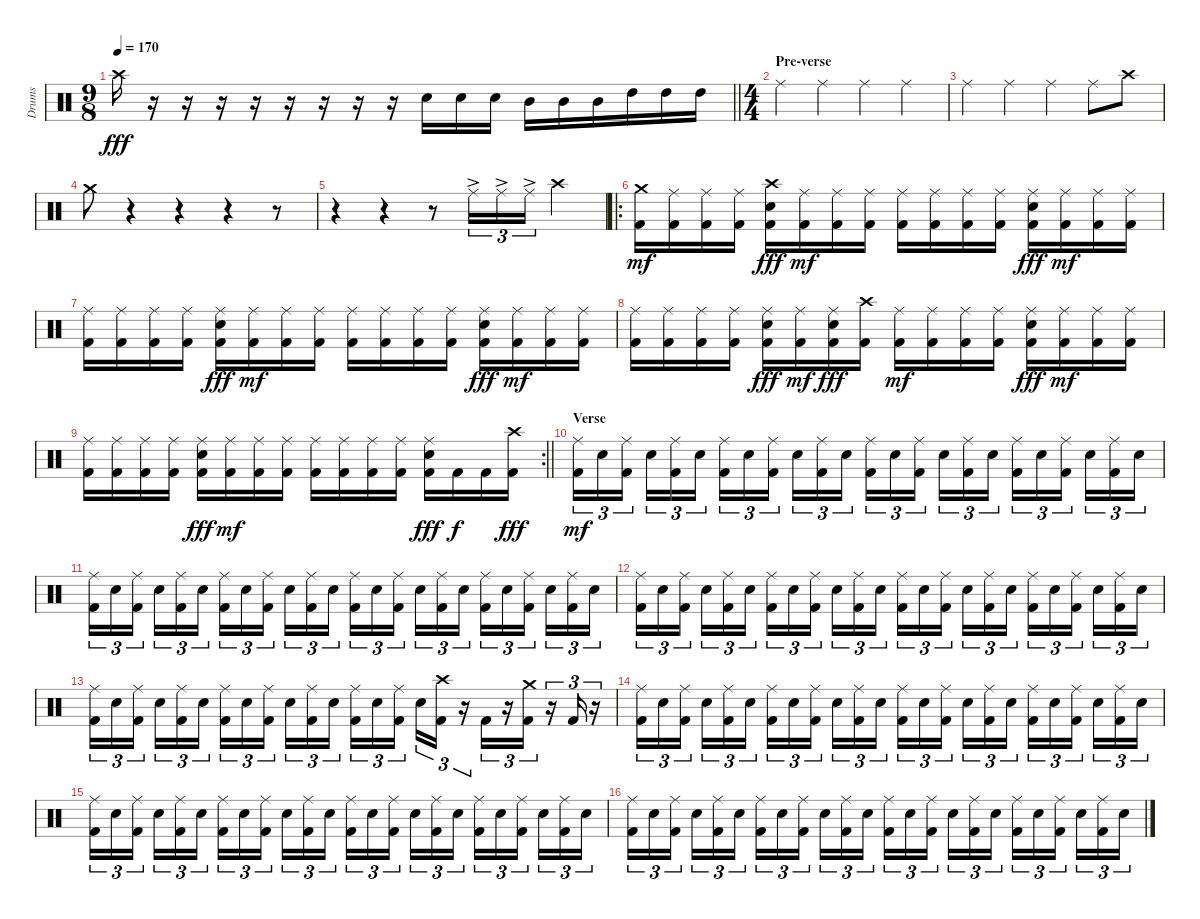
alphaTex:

\track ("Drums" "Drums") {instrument percussion}
\staff {score}
\articulation defaults
\ts (9 8)
\tempo 170
\clef neutral
\barLineRight lightlight
\ks c "Crash high (hit)".16{dy fff}
r.16 r.16 r.16 r.16 r.16 r.16 r.16 r.16 "Snare (hit) 2".16 "Snare (hit) 2".16 "Snare (hit) 2".16 "Mid Tom (hit)".16 "Mid Tom (hit)".16 "Mid Tom (hit)".16 "High Tom (hit)".16 "High Tom (hit)".16 "High Tom (hit)".16 |
\ts (4 4)
\section ("" "Pre-verse")
"Ride (middle)".4 "Ride (middle)".4 "Ride (middle)".4 "Ride (middle)".4 |
"Ride (middle)".4 "Ride (middle)".4 "Ride (middle)".4 "Ride (middle)".8 "Crash high (hit)".8 |
"Crash medium (hit)".8 r.4 r.4 r.4 r.8 |
r.4 r.4 r.8 "Ride (middle)"{ac}.16{tu (3 2)} "Ride (middle)"{ac}.16{tu (3 2)} "Ride (middle)"{ac}.16{tu (3 2)} "Crash high (hit)".4 |
\ro
("Crash medium (hit)" "Kick (hit) 2").16{dy mf} ("Ride (middle)" "Kick (hit) 2").16 ("Ride (middle)" "Kick (hit) 2").16 ("Ride (middle)" "Kick (hit) 2").16 ("Crash high (hit)" "Snare (hit) 2" "Kick (hit) 2").16{dy fff} ("Ride (middle)" "Kick (hit) 2").16{dy mf} ("Ride (middle)" "Kick (hit) 2").16 ("Ride (middle)" "Kick (hit) 2").16 ("Ride (middle)" "Kick (hit) 2").16 ("Ride (middle)" "Kick (hit) 2").16 ("Ride (middle)" "Kick (hit) 2").16 ("Ride (middle)" "Kick (hit) 2").16 ("Ride (middle)" "Snare (hit) 2" "Kick (hit) 2").16{dy fff} ("Ride (middle)" "Kick (hit) 2").16{dy mf} ("Ride (middle)" "Kick (hit) 2").16 ("Ride (middle)" "Kick (hit) 2").16 |
("Ride (middle)" "Kick (hit) 2").16 ("Ride (middle)" "Kick (hit) 2").16 ("Ride (middle)" "Kick (hit) 2").16 ("Ride (middle)" "Kick (hit) 2").16 ("Ride (middle)" "Snare (hit) 2" "Kick (hit) 2").16{dy fff} ("Ride (middle)" "Kick (hit) 2").16{dy mf} ("Ride (middle)" "Kick (hit) 2").16 ("Ride (middle)" "Kick (hit) 2").16 ("Ride (middle)" "Kick (hit) 2").16 ("Ride (middle)" "Kick (hit) 2").16 ("Ride (middle)" "Kick (hit) 2").16 ("Ride (middle)" "Kick (hit) 2").16 ("Ride (middle)" "Snare (hit) 2" "Kick (hit) 2").16{dy fff} ("Ride (middle)" "Kick (hit) 2").16{dy mf} ("Ride (middle)" "Kick (hit) 2").16 ("Ride (middle)" "Kick (hit) 2").16 |
("Ride (middle)" "Kick (hit) 2").16 ("Ride (middle)" "Kick (hit) 2").16 ("Ride (middle)" "Kick (hit) 2").16 ("Ride (middle)" "Kick (hit) 2").16 ("Ride (middle)" "Snare (hit) 2" "Kick (hit) 2").16{dy fff} ("Ride (middle)" "Kick (hit) 2").16{dy mf} ("Ride (middle)" "Snare (hit) 2" "Kick (hit) 2").16{dy fff} ("Crash high (hit)" "Kick (hit) 2").16 ("Ride (middle)" "Kick (hit) 2").16{dy mf} ("Ride (middle)" "Kick (hit) 2").16 ("Ride (middle)" "Kick (hit) 2").16 ("Ride (middle)" "Kick (hit) 2").16 ("Ride (middle)" "Snare (hit) 2" "Kick (hit) 2").16{dy fff} ("Ride (middle)" "Kick (hit) 2").16{dy mf} ("Ride (middle)" "Kick (hit) 2").16 ("Ride (middle)" "Kick (hit) 2").16 |
\rc 2
\barLineRight lightlight
("Ride (middle)" "Kick (hit) 2").16 ("Ride (middle)" "Kick (hit) 2").16 ("Ride (middle)" "Kick (hit) 2").16 ("Ride (middle)" "Kick (hit) 2").16 ("Ride (middle)" "Snare (hit) 2" "Kick (hit) 2").16{dy fff} ("Ride (middle)" "Kick (hit) 2").16{dy mf} ("Ride (middle)" "Kick (hit) 2").16 ("Ride (middle)" "Kick (hit) 2").16 ("Ride (middle)" "Kick (hit) 2").16 ("Ride (middle)" "Kick (hit) 2").16 ("Ride (middle)" "Kick (hit) 2").16 ("Ride (middle)" "Kick (hit) 2").16 ("Ride (middle)" "Snare (hit) 2" "Kick (hit) 2").16{dy fff} "Kick (hit) 2".16{dy f} "Kick (hit) 2".16 ("Crash high (hit)" "Kick (hit) 2").16{dy fff} |
\section ("" "Verse")
("Ride (middle)" "Kick (hit) 2").16{tu (3 2) dy mf} "Snare (hit) 2".16{tu (3 2)} ("Ride (middle)" "Kick (hit) 2").16{tu (3 2) beam splitsecondary} "Snare (hit) 2".16{tu (3 2)} ("Ride (middle)" "Kick (hit) 2").16{tu (3 2)} "Snare (hit) 2".16{tu (3 2)} ("Ride (middle)" "Kick (hit) 2").16{tu (3 2)} "Snare (hit) 2".16{tu (3 2)} ("Ride (middle)" "Kick (hit) 2").16{tu (3 2) beam splitsecondary} "Snare (hit) 2".16{tu (3 2)} ("Ride (middle)" "Kick (hit) 2").16{tu (3 2)} "Snare (hit) 2".16{tu (3 2)} ("Ride (middle)" "Kick (hit) 2").16{tu (3 2)} "Snare (hit) 2".16{tu (3 2)} ("Ride (middle)" "Kick (hit) 2").16{tu (3 2) beam splitsecondary} "Snare (hit) 2".16{tu (3 2)} ("Ride (middle)" "Kick (hit) 2").16{tu (3 2)} "Snare (hit) 2".16{tu (3 2)} ("Ride (middle)" "Kick (hit) 2").16{tu (3 2)} "Snare (hit) 2".16{tu (3 2)} ("Ride (middle)" "Kick (hit) 2").16{tu (3 2) beam splitsecondary} "Snare (hit) 2".16{tu (3 2)} ("Ride (middle)" "Kick (hit) 2").16{tu (3 2)} "Snare (hit) 2".16{tu (3 2)} |
("Ride (middle)" "Kick (hit) 2").16{tu (3 2)} "Snare (hit) 2".16{tu (3 2)} ("Ride (middle)" "Kick (hit) 2").16{tu (3 2) beam splitsecondary} "Snare (hit) 2".16{tu (3 2)} ("Ride (middle)" "Kick (hit) 2").16{tu (3 2)} "Snare (hit) 2".16{tu (3 2)} ("Ride (middle)" "Kick (hit) 2").16{tu (3 2)} "Snare (hit) 2".16{tu (3 2)} ("Ride (middle)" "Kick (hit) 2").16{tu (3 2) beam splitsecondary} "Snare (hit) 2".16{tu (3 2)} ("Ride (middle)" "Kick (hit) 2").16{tu (3 2)} "Snare (hit) 2".16{tu (3 2)} ("Ride (middle)" "Kick (hit) 2").16{tu (3 2)} "Snare (hit) 2".16{tu (3 2)} ("Ride (middle)" "Kick (hit) 2").16{tu (3 2) beam splitsecondary} "Snare (hit) 2".16{tu (3 2)} ("Ride (middle)" "Kick (hit) 2").16{tu (3 2)} "Snare (hit) 2".16{tu (3 2)} ("Ride (middle)" "Kick (hit) 2").16{tu (3 2)} "Snare (hit) 2".16{tu (3 2)} ("Ride (middle)" "Kick (hit) 2").16{tu (3 2) beam splitsecondary} "Snare (hit) 2".16{tu (3 2)} ("Ride (middle)" "Kick (hit) 2").16{tu (3 2)} "Snare (hit) 2".16{tu (3 2)} |
("Ride (middle)" "Kick (hit) 2").16{tu (3 2)} "Snare (hit) 2".16{tu (3 2)} ("Ride (middle)" "Kick (hit) 2").16{tu (3 2) beam splitsecondary} "Snare (hit) 2".16{tu (3 2)} ("Ride (middle)" "Kick (hit) 2").16{tu (3 2)} "Snare (hit) 2".16{tu (3 2)} ("Ride (middle)" "Kick (hit) 2").16{tu (3 2)} "Snare (hit) 2".16{tu (3 2)} ("Ride (middle)" "Kick (hit) 2").16{tu (3 2) beam splitsecondary} "Snare (hit) 2".16{tu (3 2)} ("Ride (middle)" "Kick (hit) 2").16{tu (3 2)} "Snare (hit) 2".16{tu (3 2)} ("Ride (middle)" "Kick (hit) 2").16{tu (3 2)} "Snare (hit) 2".16{tu (3 2)} ("Ride (middle)" "Kick (hit) 2").16{tu (3 2) beam splitsecondary} "Snare (hit) 2".16{tu (3 2)} ("Ride (middle)" "Kick (hit) 2").16{tu (3 2)} "Snare (hit) 2".16{tu (3 2)} ("Ride (middle)" "Kick (hit) 2").16{tu (3 2)} "Snare (hit) 2".16{tu (3 2)} ("Ride (middle)" "Kick (hit) 2").16{tu (3 2) beam splitsecondary} "Snare (hit) 2".16{tu (3 2)} ("Ride (middle)" "Kick (hit) 2").16{tu (3 2)} "Snare (hit) 2".16{tu (3 2)} |
("Ride (middle)" "Kick (hit) 2").16{tu (3 2)} "Snare (hit) 2".16{tu (3 2)} ("Ride (middle)" "Kick (hit) 2").16{tu (3 2) beam splitsecondary} "Snare (hit) 2".16{tu (3 2)} ("Ride (middle)" "Kick (hit) 2").16{tu (3 2)} "Snare (hit) 2".16{tu (3 2)} ("Ride (middle)" "Kick (hit) 2").16{tu (3 2)} "Snare (hit) 2".16{tu (3 2)} ("Ride (middle)" "Kick (hit) 2").16{tu (3 2) beam splitsecondary} "Snare (hit) 2".16{tu (3 2)} ("Ride (middle)" "Kick (hit) 2").16{tu (3 2)} "Snare (hit) 2".16{tu (3 2)} ("Ride (middle)" "Kick (hit) 2").16{tu (3 2)} "Snare (hit) 2".16{tu (3 2)} ("Ride (middle)" "Kick (hit) 2").16{tu (3 2) beam splitsecondary} "Snare (hit) 2".16{tu (3 2)} ("Crash high (hit)" "Kick (hit) 2").16{tu (3 2)} r.16{tu (3 2)} "Kick (hit) 2".16{tu (3 2)} r.16{tu (3 2)} ("Crash medium (hit)" "Kick (hit) 2").16{tu (3 2)} r.16{tu (3 2)} "Kick (hit) 2".16{tu (3 2)} r.16{tu (3 2)} |
("Ride (middle)" "Kick (hit) 2").16{tu (3 2)} "Snare (hit) 2".16{tu (3 2)} ("Ride (middle)" "Kick (hit) 2").16{tu (3 2) beam splitsecondary} "Snare (hit) 2".16{tu (3 2)} ("Ride (middle)" "Kick (hit) 2").16{tu (3 2)} "Snare (hit) 2".16{tu (3 2)} ("Ride (middle)" "Kick (hit) 2").16{tu (3 2)} "Snare (hit) 2".16{tu (3 2)} ("Ride (middle)" "Kick (hit) 2").16{tu (3 2) beam splitsecondary} "Snare (hit) 2".16{tu (3 2)} ("Ride (middle)" "Kick (hit) 2").16{tu (3 2)} "Snare (hit) 2".16{tu (3 2)} ("Ride (middle)" "Kick (hit) 2").16{tu (3 2)} "Snare (hit) 2".16{tu (3 2)} ("Ride (middle)" "Kick (hit) 2").16{tu (3 2) beam splitsecondary} "Snare (hit) 2".16{tu (3 2)} ("Ride (middle)" "Kick (hit) 2").16{tu (3 2)} "Snare (hit) 2".16{tu (3 2)} ("Ride (middle)" "Kick (hit) 2").16{tu (3 2)} "Snare (hit) 2".16{tu (3 2)} ("Ride (middle)" "Kick (hit) 2").16{tu (3 2) beam splitsecondary} "Snare (hit) 2".16{tu (3 2)} ("Ride (middle)" "Kick (hit) 2").16{tu (3 2)} "Snare (hit) 2".16{tu (3 2)} |
("Ride (middle)" "Kick (hit) 2").16{tu (3 2)} "Snare (hit) 2".16{tu (3 2)} ("Ride (middle)" "Kick (hit) 2").16{tu (3 2) beam splitsecondary} "Snare (hit) 2".16{tu (3 2)} ("Ride (middle)" "Kick (hit) 2").16{tu (3 2)} "Snare (hit) 2".16{tu (3 2)} ("Ride (middle)" "Kick (hit) 2").16{tu (3 2)} "Snare (hit) 2".16{tu (3 2)} ("Ride (middle)" "Kick (hit) 2").16{tu (3 2) beam splitsecondary} "Snare (hit) 2".16{tu (3 2)} ("Ride (middle)" "Kick (hit) 2").16{tu (3 2)} "Snare (hit) 2".16{tu (3 2)} ("Ride (middle)" "Kick (hit) 2").16{tu (3 2)} "Snare (hit) 2".16{tu (3 2)} ("Ride (middle)" "Kick (hit) 2").16{tu (3 2) beam splitsecondary} "Snare (hit) 2".16{tu (3 2)} ("Ride (middle)" "Kick (hit) 2").16{tu (3 2)} "Snare (hit) 2".16{tu (3 2)} ("Ride (middle)" "Kick (hit) 2").16{tu (3 2)} "Snare (hit) 2".16{tu (3 2)} ("Ride (middle)" "Kick (hit) 2").16{tu (3 2) beam splitsecondary} "Snare (hit) 2".16{tu (3 2)} ("Ride (middle)" "Kick (hit) 2").16{tu (3 2)} "Snare (hit) 2".16{tu (3 2)} |
("Ride (middle)" "Kick (hit) 2").16{tu (3 2)} "Snare (hit) 2".16{tu (3 2)} ("Ride (middle)" "Kick (hit) 2").16{tu (3 2) beam splitsecondary} "Snare (hit) 2".16{tu (3 2)} ("Ride (middle)" "Kick (hit) 2").16{tu (3 2)} "Snare (hit) 2".16{tu (3 2)} ("Ride (middle)" "Kick (hit) 2").16{tu (3 2)} "Snare (hit) 2".16{tu (3 2)} ("Ride (middle)" "Kick (hit) 2").16{tu (3 2) beam splitsecondary} "Snare (hit) 2".16{tu (3 2)} ("Ride (middle)" "Kick (hit) 2").16{tu (3 2)} "Snare (hit) 2".16{tu (3 2)} ("Ride (middle)" "Kick (hit) 2").16{tu (3 2)} "Snare (hit) 2".16{tu (3 2)} ("Ride (middle)" "Kick (hit) 2").16{tu (3 2) beam splitsecondary} "Snare (hit) 2".16{tu (3 2)} ("Ride (middle)" "Kick (hit) 2").16{tu (3 2)} "Snare (hit) 2".16{tu (3 2)} ("Ride (middle)" "Kick (hit) 2").16{tu (3 2)} "Snare (hit) 2".16{tu (3 2)} ("Ride (middle)" "Kick (hit) 2").16{tu (3 2) beam splitsecondary} "Snare (hit) 2".16{tu (3 2)} ("Ride (middle)" "Kick (hit) 2").16{tu (3 2)} "Snare (hit) 2".16{tu (3 2)}
